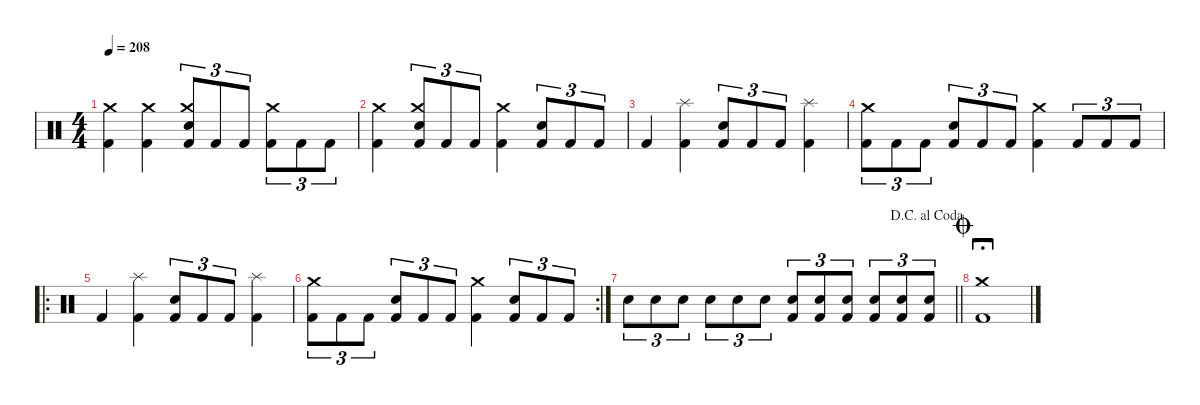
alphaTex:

\defaultSystemsLayout 4
\hideDynamics
\bracketExtendMode nobrackets
\singleTrackTrackNamePolicy hidden
\multiTrackTrackNamePolicy hidden
\firstSystemTrackNameMode fullname
\firstSystemTrackNameOrientation horizontal
\otherSystemsTrackNameOrientation horizontal
\track ("Drums" "drm.") {instrument percussion}
\staff {score}
\articulation defaults
\ts (4 4)
\tempo 208
\clef neutral
\ks c
("Crash medium (hit)" "Kick (hit) 2").4{dy f beam Down} ("Crash medium (hit)" "Kick (hit) 2").4{beam Down} ("Crash medium (hit)" "Snare (hit) 2" "Kick (hit) 2").8{tu (3 2) beam Up} "Kick (hit) 2".8{tu (3 2) beam Up} "Kick (hit) 2".8{tu (3 2) beam Up} ("Crash medium (hit)" "Kick (hit) 2").8{tu (3 2) beam Down} "Kick (hit) 2".8{tu (3 2) beam Down} "Kick (hit) 2".8{tu (3 2) beam Down} |
("Crash medium (hit)" "Kick (hit) 2").4{beam Down} ("Crash medium (hit)" "Snare (hit) 2" "Kick (hit) 2").8{tu (3 2) beam Up} "Kick (hit) 2".8{tu (3 2) beam Up} "Kick (hit) 2".8{tu (3 2) beam Up} ("Crash medium (hit)" "Kick (hit) 2").4{beam Down} ("Snare (hit) 2" "Kick (hit) 2").8{tu (3 2) beam Up} "Kick (hit) 2".8{tu (3 2) beam Up} "Kick (hit) 2".8{tu (3 2) beam Up} |
"Kick (hit) 2".4{beam Up} ("Splash (hit)" "Kick (hit) 2").4{beam Down} ("Snare (hit) 2" "Kick (hit) 2").8{tu (3 2) beam Up} "Kick (hit) 2".8{tu (3 2) beam Up} "Kick (hit) 2".8{tu (3 2) beam Up} ("Splash (hit)" "Kick (hit) 2").4{beam Down} |
("Crash medium (hit)" "Kick (hit) 2").8{tu (3 2) beam Down} "Kick (hit) 2".8{tu (3 2) beam Down} "Kick (hit) 2".8{tu (3 2) beam Down} ("Snare (hit) 2" "Kick (hit) 2").8{tu (3 2) beam Up} "Kick (hit) 2".8{tu (3 2) beam Up} "Kick (hit) 2".8{tu (3 2) beam Up} ("Crash medium (hit)" "Kick (hit) 2").4{beam Down} "Kick (hit) 2".8{tu (3 2) beam Up} "Kick (hit) 2".8{tu (3 2) beam Up} "Kick (hit) 2".8{tu (3 2) beam Up} |
\ro "Kick (hit) 2".4{beam Up}
("Splash (hit)" "Kick (hit) 2").4{beam Down} ("Snare (hit) 2" "Kick (hit) 2").8{tu (3 2) beam Up} "Kick (hit) 2".8{tu (3 2) beam Up} "Kick (hit) 2".8{tu (3 2) beam Up} ("Splash (hit)" "Kick (hit) 2").4{beam Down} |
\rc 2
("Crash medium (hit)" "Kick (hit) 2").8{tu (3 2) beam Down} "Kick (hit) 2".8{tu (3 2) beam Down} "Kick (hit) 2".8{tu (3 2) beam Down} ("Snare (hit) 2" "Kick (hit) 2").8{tu (3 2) beam Up} "Kick (hit) 2".8{tu (3 2) beam Up} "Kick (hit) 2".8{tu (3 2) beam Up} ("Crash medium (hit)" "Kick (hit) 2").4{beam Down} ("Snare (hit) 2" "Kick (hit) 2").8{tu (3 2) beam Up} "Kick (hit) 2".8{tu (3 2) beam Up} "Kick (hit) 2".8{tu (3 2) beam Up} |
\jump dacapoalcoda
\barLineRight lightlight "Snare (hit) 2".8{tu (3 2) beam Down} "Snare (hit) 2".8{tu (3 2) beam Down} "Snare (hit) 2".8{tu (3 2) beam Down} "Snare (hit) 2".8{tu (3 2) beam Down} "Snare (hit) 2".8{tu (3 2) beam Down} "Snare (hit) 2".8{tu (3 2) beam Down}
("Snare (hit) 2" "Kick (hit) 2").8{tu (3 2) beam Up} ("Snare (hit) 2" "Kick (hit) 2").8{tu (3 2) beam Up} ("Snare (hit) 2" "Kick (hit) 2").8{tu (3 2) beam Up} ("Snare (hit) 2" "Kick (hit) 2").8{tu (3 2) beam Up} ("Snare (hit) 2" "Kick (hit) 2").8{tu (3 2) beam Up} ("Snare (hit) 2" "Kick (hit) 2").8{tu (3 2) beam Up} |
\jump coda
("Crash medium (hit)" "Kick (hit) 2").1{fermata (long 1) beam Down}
